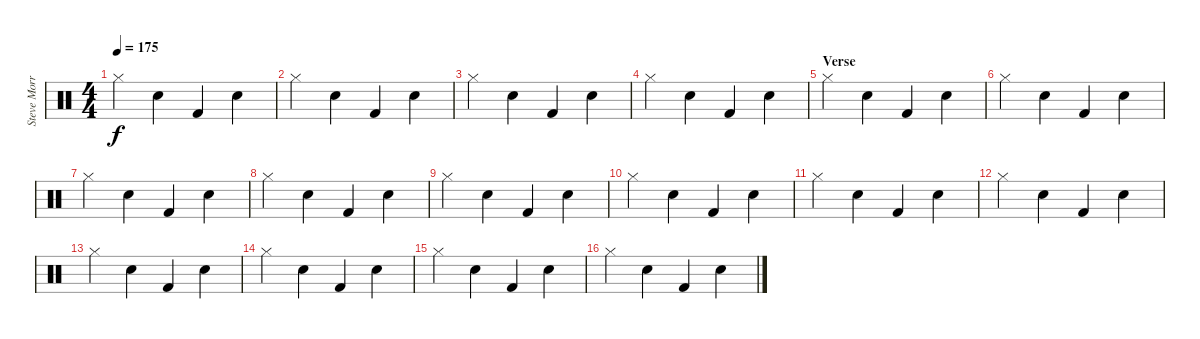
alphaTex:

\track ("Steve Morris" "Steve Morr") {instrument percussion}
\staff {score}
\articulation defaults
\ts (4 4)
\tempo 175
\clef neutral
\ks c "Hi-Hat (closed)".4{dy f} "Snare (hit) 2".4 "Kick (hit) 2".4 "Snare (hit) 2".4
|
"Hi-Hat (closed)".4 "Snare (hit) 2".4 "Kick (hit) 2".4 "Snare (hit) 2".4 |
"Hi-Hat (closed)".4 "Snare (hit) 2".4 "Kick (hit) 2".4 "Snare (hit) 2".4 |
"Hi-Hat (closed)".4 "Snare (hit) 2".4 "Kick (hit) 2".4 "Snare (hit) 2".4 |
\section ("" "Verse")
"Hi-Hat (closed)".4 "Snare (hit) 2".4 "Kick (hit) 2".4 "Snare (hit) 2".4 |
"Hi-Hat (closed)".4 "Snare (hit) 2".4 "Kick (hit) 2".4 "Snare (hit) 2".4 |
"Hi-Hat (closed)".4 "Snare (hit) 2".4 "Kick (hit) 2".4 "Snare (hit) 2".4 |
"Hi-Hat (closed)".4 "Snare (hit) 2".4 "Kick (hit) 2".4 "Snare (hit) 2".4 |
"Hi-Hat (closed)".4 "Snare (hit) 2".4 "Kick (hit) 2".4 "Snare (hit) 2".4 |
"Hi-Hat (closed)".4 "Snare (hit) 2".4 "Kick (hit) 2".4 "Snare (hit) 2".4 |
"Hi-Hat (closed)".4 "Snare (hit) 2".4 "Kick (hit) 2".4 "Snare (hit) 2".4 |
"Hi-Hat (closed)".4 "Snare (hit) 2".4 "Kick (hit) 2".4 "Snare (hit) 2".4 |
"Hi-Hat (closed)".4 "Snare (hit) 2".4 "Kick (hit) 2".4 "Snare (hit) 2".4 |
"Hi-Hat (closed)".4 "Snare (hit) 2".4 "Kick (hit) 2".4 "Snare (hit) 2".4 |
"Hi-Hat (closed)".4 "Snare (hit) 2".4 "Kick (hit) 2".4 "Snare (hit) 2".4 |
"Hi-Hat (closed)".4 "Snare (hit) 2".4 "Kick (hit) 2".4 "Snare (hit) 2".4
